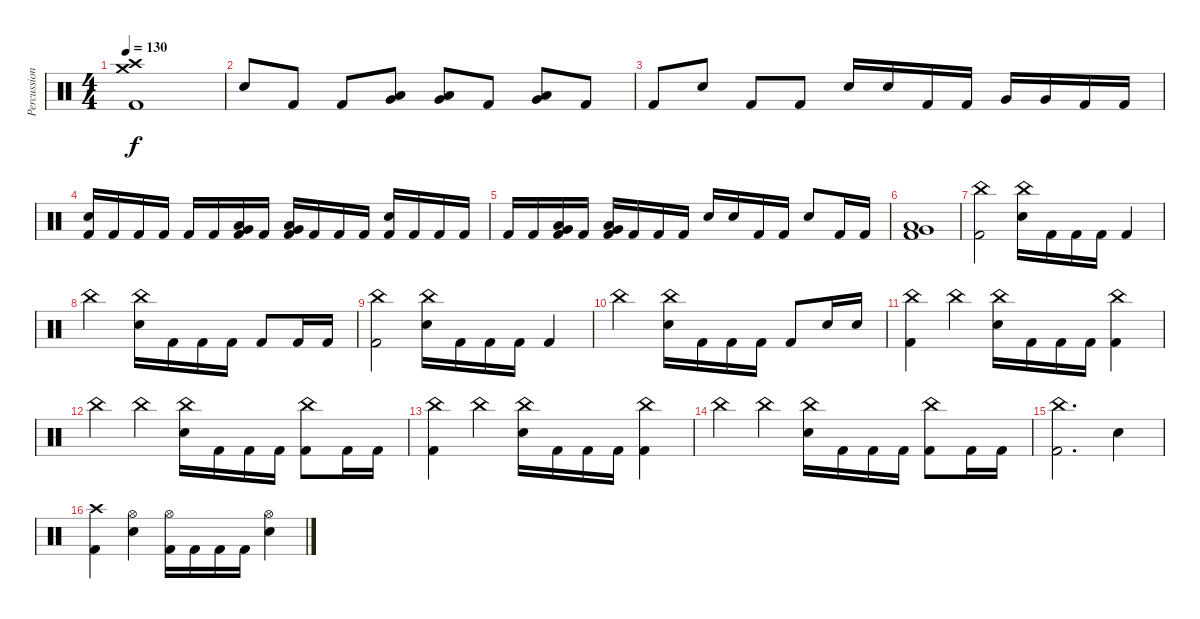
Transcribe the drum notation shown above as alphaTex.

\track ("Percussion" "Percussion") {instrument percussion}
\staff {score}
\articulation defaults
\ts (4 4)
\tempo 130
\clef neutral
\ks c
("Crash high (hit)" "Crash medium (hit)" "Kick (hit) 2").1{dy f} |
"Electric Snare (hit)".8 "Kick (hit) 2".8 "Kick (hit) 2".8 ("Very Low Tom (hit)" "Low Floor Tom (hit)").8 ("Very Low Tom (hit)" "Low Floor Tom (hit)").8 "Kick (hit) 2".8 ("Very Low Tom (hit)" "Low Floor Tom (hit)").8 "Kick (hit) 2".8 |
"Kick (hit) 2".8 "Electric Snare (hit)".8 "Kick (hit) 2".8 "Kick (hit) 2".8 "Electric Snare (hit)".16 "Electric Snare (hit)".16 "Kick (hit) 2".16 "Kick (hit) 2".16 "Very Low Tom (hit)".16 "Very Low Tom (hit)".16 "Kick (hit) 2".16 "Kick (hit) 2".16 |
("Electric Snare (hit)" "Kick (hit) 2").16 "Kick (hit) 2".16 "Kick (hit) 2".16 "Kick (hit) 2".16 "Kick (hit) 2".16 "Kick (hit) 2".16 ("Very Low Tom (hit)" "Low Floor Tom (hit)" "Kick (hit) 2").16 "Kick (hit) 2".16 ("Very Low Tom (hit)" "Low Floor Tom (hit)" "Kick (hit) 2").16 "Kick (hit) 2".16 "Kick (hit) 2".16 "Kick (hit) 2".16 ("Electric Snare (hit)" "Kick (hit) 2").16 "Kick (hit) 2".16 "Kick (hit) 2".16 "Kick (hit) 2".16 |
"Kick (hit) 2".16 "Kick (hit) 2".16 ("Very Low Tom (hit)" "Low Floor Tom (hit)" "Kick (hit) 2").16 "Kick (hit) 2".16 ("Very Low Tom (hit)" "Low Floor Tom (hit)" "Kick (hit) 2").16 "Kick (hit) 2".16 "Kick (hit) 2".16 "Kick (hit) 2".16 "Electric Snare (hit)".16 "Electric Snare (hit)".16 "Kick (hit) 2".16 "Kick (hit) 2".16 "Electric Snare (hit)".8 "Kick (hit) 2".16 "Kick (hit) 2".16 |
("Very Low Tom (hit)" "Low Floor Tom (hit)" "Kick (hit) 2").1 |
("China (hit)" "Kick (hit) 2").2 ("China (hit)" "Electric Snare (hit)").16 "Kick (hit) 2".16 "Kick (hit) 2".16 "Kick (hit) 2".16 "Kick (hit) 2".4 |
"China (hit)".2 ("China (hit)" "Electric Snare (hit)").16 "Kick (hit) 2".16 "Kick (hit) 2".16 "Kick (hit) 2".16 "Kick (hit) 2".8 "Kick (hit) 2".16 "Kick (hit) 2".16 |
("China (hit)" "Kick (hit) 2").2 ("China (hit)" "Electric Snare (hit)").16 "Kick (hit) 2".16 "Kick (hit) 2".16 "Kick (hit) 2".16 "Kick (hit) 2".4 |
"China (hit)".2 ("China (hit)" "Electric Snare (hit)").16 "Kick (hit) 2".16 "Kick (hit) 2".16 "Kick (hit) 2".16 "Kick (hit) 2".8 "Electric Snare (hit)".16 "Electric Snare (hit)".16 |
("China (hit)" "Kick (hit) 2").4 "China (hit)".4 ("China (hit)" "Electric Snare (hit)").16 "Kick (hit) 2".16 "Kick (hit) 2".16 "Kick (hit) 2".16 ("China (hit)" "Kick (hit) 2").4 |
"China (hit)".4 "China (hit)".4 ("China (hit)" "Electric Snare (hit)").16 "Kick (hit) 2".16 "Kick (hit) 2".16 "Kick (hit) 2".16 ("China (hit)" "Kick (hit) 2").8 "Kick (hit) 2".16 "Kick (hit) 2".16 |
("China (hit)" "Kick (hit) 2").4 "China (hit)".4 ("China (hit)" "Electric Snare (hit)").16 "Kick (hit) 2".16 "Kick (hit) 2".16 "Kick (hit) 2".16 ("China (hit)" "Kick (hit) 2").4 |
"China (hit)".4 "China (hit)".4 ("China (hit)" "Electric Snare (hit)").16 "Kick (hit) 2".16 "Kick (hit) 2".16 "Kick (hit) 2".16 ("China (hit)" "Kick (hit) 2").8 "Kick (hit) 2".16 "Kick (hit) 2".16 |
("China (hit)" "Kick (hit) 2").2{d} "Electric Snare (hit)".4 |
("Crash high (hit)" "Kick (hit) 2").4 ("Hi-Hat (open)" "Electric Snare (hit)").4 ("Hi-Hat (open)" "Kick (hit) 2").16 "Kick (hit) 2".16 "Kick (hit) 2".16 "Kick (hit) 2".16 ("Hi-Hat (open)" "Electric Snare (hit)").4
